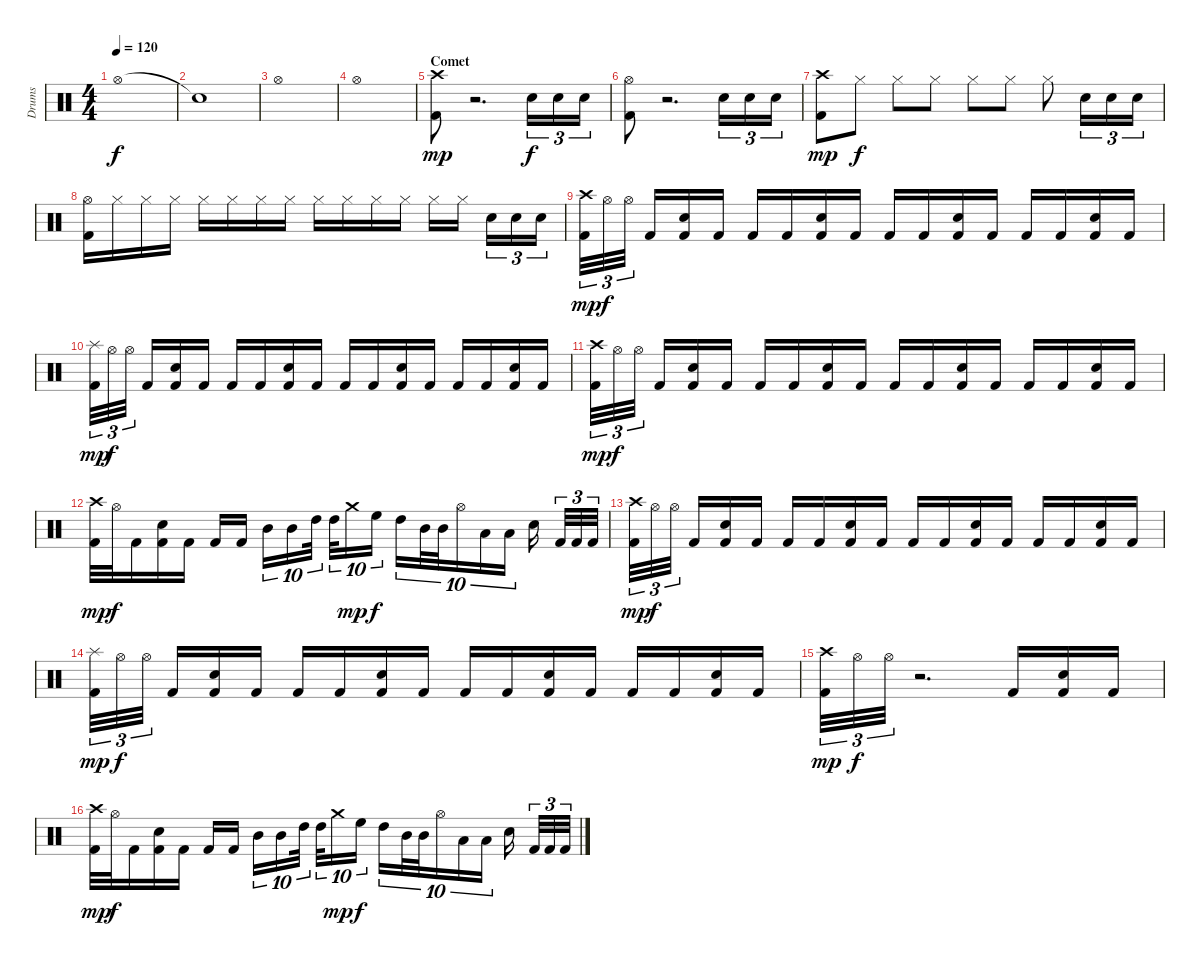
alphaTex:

\track ("Drums" "Drums") {instrument percussion}
\staff {score}
\articulation defaults
\ts (4 4)
\tempo 120
\clef neutral
\ks c "Hi-Hat (open)".1{dy f}
|
"Snare (hit)"{t}.1 |
"Hi-Hat (open)".1 |
"Hi-Hat (open)".1 |
\section ("" "Comet")
("Crash high (hit)" "Kick (hit) 2").8{dy mp} r.2{d} "Electric Snare (hit)".16{tu (3 2) dy f} "Electric Snare (hit)".16{tu (3 2)} "Electric Snare (hit)".16{tu (3 2)} |
("Hi-Hat (open)" "Kick (hit) 2").8 r.2{d} "Electric Snare (hit)".16{tu (3 2)} "Electric Snare (hit)".16{tu (3 2)} "Electric Snare (hit)".16{tu (3 2)} |
("Crash high (hit)" "Kick (hit) 2").8{dy mp} "Hi-Hat (closed)".8{dy f} "Hi-Hat (closed)".8 "Hi-Hat (closed)".8 "Hi-Hat (closed)".8 "Hi-Hat (closed)".8 "Hi-Hat (closed)".8 "Electric Snare (hit)".16{tu (3 2)} "Electric Snare (hit)".16{tu (3 2)} "Electric Snare (hit)".16{tu (3 2)} |
("Hi-Hat (open)" "Kick (hit) 2").16 "Hi-Hat (closed)".16 "Hi-Hat (closed)".16 "Hi-Hat (closed)".16 "Hi-Hat (closed)".16 "Hi-Hat (closed)".16 "Hi-Hat (closed)".16 "Hi-Hat (closed)".16 "Hi-Hat (closed)".16 "Hi-Hat (closed)".16 "Hi-Hat (closed)".16 "Hi-Hat (closed)".16 "Hi-Hat (closed)".16 "Hi-Hat (closed)".16 "Electric Snare (hit)".16{tu (3 2)} "Electric Snare (hit)".16{tu (3 2)} "Electric Snare (hit)".16{tu (3 2)} |
("Kick (hit) 2" "Crash high (hit)").32{tu (3 2) dy mp} "Hi-Hat (open)".32{tu (3 2) dy f} "Hi-Hat (open)".32{tu (3 2)} "Kick (hit) 2".16 ("Kick (hit) 2" "Electric Snare (hit)").16 "Kick (hit) 2".16 "Kick (hit) 2".16 "Kick (hit) 2".16 ("Kick (hit) 2" "Electric Snare (hit)").16 "Kick (hit) 2".16 "Kick (hit) 2".16 "Kick (hit) 2".16 ("Kick (hit) 2" "Electric Snare (hit)").16 "Kick (hit) 2".16 "Kick (hit) 2".16 "Kick (hit) 2".16 ("Kick (hit) 2" "Electric Snare (hit)").16 "Kick (hit) 2".16 |
("Kick (hit) 2" "Splash (hit)").32{tu (3 2) dy mp} "Hi-Hat (open)".32{tu (3 2) dy f} "Hi-Hat (open)".32{tu (3 2)} "Kick (hit) 2".16 ("Kick (hit) 2" "Electric Snare (hit)").16 "Kick (hit) 2".16 "Kick (hit) 2".16 "Kick (hit) 2".16 ("Kick (hit) 2" "Electric Snare (hit)").16 "Kick (hit) 2".16 "Kick (hit) 2".16 "Kick (hit) 2".16 ("Kick (hit) 2" "Electric Snare (hit)").16 "Kick (hit) 2".16 "Kick (hit) 2".16 "Kick (hit) 2".16 ("Kick (hit) 2" "Electric Snare (hit)").16 "Kick (hit) 2".16 |
("Kick (hit) 2" "Crash high (hit)").32{tu (3 2) dy mp} "Hi-Hat (open)".32{tu (3 2) dy f} "Hi-Hat (open)".32{tu (3 2)} "Kick (hit) 2".16 ("Kick (hit) 2" "Electric Snare (hit)").16 "Kick (hit) 2".16 "Kick (hit) 2".16 "Kick (hit) 2".16 ("Kick (hit) 2" "Electric Snare (hit)").16 "Kick (hit) 2".16 "Kick (hit) 2".16 "Kick (hit) 2".16 ("Kick (hit) 2" "Electric Snare (hit)").16 "Kick (hit) 2".16 "Kick (hit) 2".16 "Kick (hit) 2".16 ("Kick (hit) 2" "Electric Snare (hit)").16 "Kick (hit) 2".16 |
("Kick (hit) 2" "Crash high (hit)").32{dy mp} "Hi-Hat (open)".32{dy f} "Kick (hit) 2".16 ("Kick (hit) 2" "Electric Snare (hit)").16 "Kick (hit) 2".16 "Kick (hit) 2".16 "Kick (hit) 2".16 "Mid Tom (hit)".16{tu (10 8)} "Mid Tom (hit)".16{tu (10 8)} "High Tom (hit)".32{tu (10 8)} "High Tom (hit)".32{tu (10 8)} "Crash medium (hit)".16{tu (10 8) dy mp} "High Floor Tom (hit)".16{tu (10 8) dy f} "High Tom (hit)".16{tu (10 8)} "Mid Tom (hit)".32{tu (10 8)} "Mid Tom (hit)".32{tu (10 8)} "Hi-Hat (open)".16{tu (10 8)} "Low Tom (hit)".16{tu (10 8)} "Low Tom (hit)".16{tu (10 8)} "Electric Snare (hit)".16 "Kick (hit) 2".32{tu (3 2)} "Kick (hit) 2".32{tu (3 2)} "Kick (hit) 2".32{tu (3 2)} |
("Kick (hit) 2" "Crash high (hit)").32{tu (3 2) dy mp} "Hi-Hat (open)".32{tu (3 2) dy f} "Hi-Hat (open)".32{tu (3 2)} "Kick (hit) 2".16 ("Kick (hit) 2" "Electric Snare (hit)").16 "Kick (hit) 2".16 "Kick (hit) 2".16 "Kick (hit) 2".16 ("Kick (hit) 2" "Electric Snare (hit)").16 "Kick (hit) 2".16 "Kick (hit) 2".16 "Kick (hit) 2".16 ("Kick (hit) 2" "Electric Snare (hit)").16 "Kick (hit) 2".16 "Kick (hit) 2".16 "Kick (hit) 2".16 ("Kick (hit) 2" "Electric Snare (hit)").16 "Kick (hit) 2".16 |
("Kick (hit) 2" "Splash (hit)").32{tu (3 2) dy mp} "Hi-Hat (open)".32{tu (3 2) dy f} "Hi-Hat (open)".32{tu (3 2)} "Kick (hit) 2".16 ("Kick (hit) 2" "Electric Snare (hit)").16 "Kick (hit) 2".16 "Kick (hit) 2".16 "Kick (hit) 2".16 ("Kick (hit) 2" "Electric Snare (hit)").16 "Kick (hit) 2".16 "Kick (hit) 2".16 "Kick (hit) 2".16 ("Kick (hit) 2" "Electric Snare (hit)").16 "Kick (hit) 2".16 "Kick (hit) 2".16 "Kick (hit) 2".16 ("Kick (hit) 2" "Electric Snare (hit)").16 "Kick (hit) 2".16 |
("Kick (hit) 2" "Crash high (hit)").32{tu (3 2) dy mp} "Hi-Hat (open)".32{tu (3 2) dy f} "Hi-Hat (open)".32{tu (3 2)} r.2{d} "Kick (hit) 2".16 ("Kick (hit) 2" "Electric Snare (hit)").16 "Kick (hit) 2".16 |
("Kick (hit) 2" "Crash high (hit)").32{dy mp} "Hi-Hat (open)".32{dy f} "Kick (hit) 2".16 ("Kick (hit) 2" "Electric Snare (hit)").16 "Kick (hit) 2".16 "Kick (hit) 2".16 "Kick (hit) 2".16 "Mid Tom (hit)".16{tu (10 8)} "Mid Tom (hit)".16{tu (10 8)} "High Tom (hit)".32{tu (10 8)} "High Tom (hit)".32{tu (10 8)} "Crash medium (hit)".16{tu (10 8) dy mp} "High Floor Tom (hit)".16{tu (10 8) dy f} "High Tom (hit)".16{tu (10 8)} "Mid Tom (hit)".32{tu (10 8)} "Mid Tom (hit)".32{tu (10 8)} "Hi-Hat (open)".16{tu (10 8)} "Low Tom (hit)".16{tu (10 8)} "Low Tom (hit)".16{tu (10 8)} "Electric Snare (hit)".16 "Kick (hit) 2".32{tu (3 2)} "Kick (hit) 2".32{tu (3 2)} "Kick (hit) 2".32{tu (3 2)}
